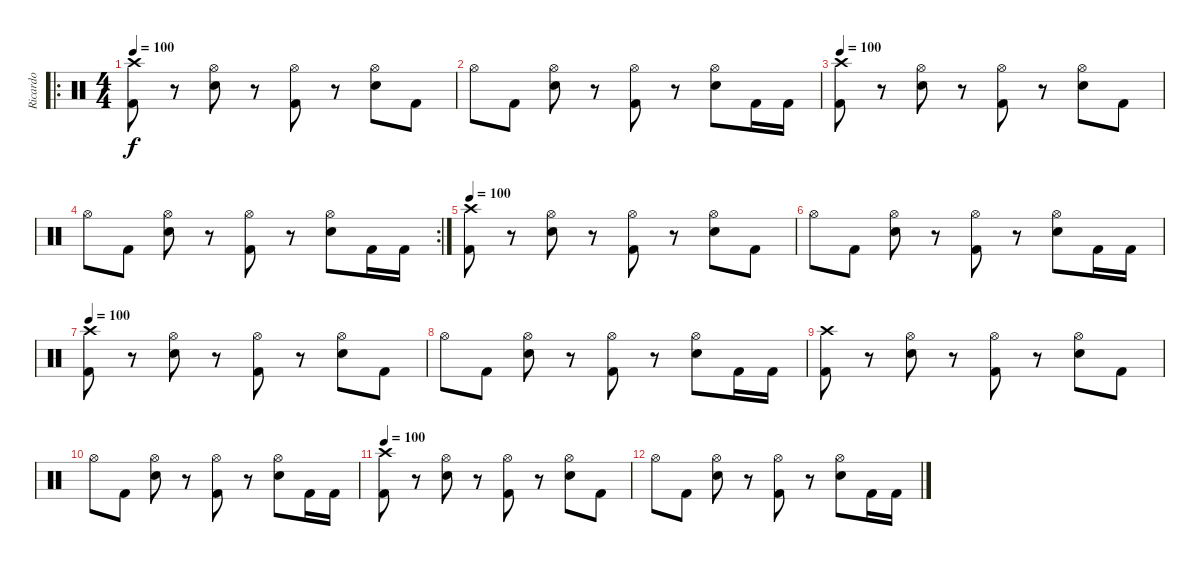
\track ("Ricardo" "Ricardo") {instrument percussion}
\staff {score}
\articulation defaults
\ro
\ts (4 4)
\tempo 100
\clef neutral
\ks c
("Crash high (hit)" "Kick (hit) 2").8{dy f} r.8 ("Hi-Hat (open)" "Snare (hit) 2").8 r.8 ("Hi-Hat (open)" "Kick (hit) 2").8 r.8 ("Hi-Hat (open)" "Snare (hit) 2").8 "Kick (hit) 2".8 |
"Hi-Hat (open)".8 "Kick (hit) 2".8 ("Hi-Hat (open)" "Snare (hit) 2").8 r.8 ("Hi-Hat (open)" "Kick (hit) 2").8 r.8 ("Hi-Hat (open)" "Snare (hit) 2").8 "Kick (hit) 2".16 "Kick (hit) 2".16 |
\tempo 100
("Crash high (hit)" "Kick (hit) 2").8 r.8 ("Hi-Hat (open)" "Snare (hit) 2").8 r.8 ("Hi-Hat (open)" "Kick (hit) 2").8 r.8 ("Hi-Hat (open)" "Snare (hit) 2").8 "Kick (hit) 2".8 |
\rc 2 "Hi-Hat (open)".8 "Kick (hit) 2".8
("Hi-Hat (open)" "Snare (hit) 2").8 r.8 ("Hi-Hat (open)" "Kick (hit) 2").8 r.8 ("Hi-Hat (open)" "Snare (hit) 2").8 "Kick (hit) 2".16 "Kick (hit) 2".16 |
\tempo 100
("Crash high (hit)" "Kick (hit) 2").8 r.8 ("Hi-Hat (open)" "Snare (hit) 2").8 r.8 ("Hi-Hat (open)" "Kick (hit) 2").8 r.8 ("Hi-Hat (open)" "Snare (hit) 2").8 "Kick (hit) 2".8 |
"Hi-Hat (open)".8 "Kick (hit) 2".8 ("Hi-Hat (open)" "Snare (hit) 2").8 r.8 ("Hi-Hat (open)" "Kick (hit) 2").8 r.8 ("Hi-Hat (open)" "Snare (hit) 2").8 "Kick (hit) 2".16 "Kick (hit) 2".16 |
\tempo 100
("Crash high (hit)" "Kick (hit) 2").8 r.8 ("Hi-Hat (open)" "Snare (hit) 2").8 r.8 ("Hi-Hat (open)" "Kick (hit) 2").8 r.8 ("Hi-Hat (open)" "Snare (hit) 2").8 "Kick (hit) 2".8 |
"Hi-Hat (open)".8 "Kick (hit) 2".8 ("Hi-Hat (open)" "Snare (hit) 2").8 r.8 ("Hi-Hat (open)" "Kick (hit) 2").8 r.8 ("Hi-Hat (open)" "Snare (hit) 2").8 "Kick (hit) 2".16 "Kick (hit) 2".16 |
("Crash high (hit)" "Kick (hit) 2").8 r.8 ("Hi-Hat (open)" "Snare (hit) 2").8 r.8 ("Hi-Hat (open)" "Kick (hit) 2").8 r.8 ("Hi-Hat (open)" "Snare (hit) 2").8 "Kick (hit) 2".8 |
"Hi-Hat (open)".8 "Kick (hit) 2".8 ("Hi-Hat (open)" "Snare (hit) 2").8 r.8 ("Hi-Hat (open)" "Kick (hit) 2").8 r.8 ("Hi-Hat (open)" "Snare (hit) 2").8 "Kick (hit) 2".16 "Kick (hit) 2".16 |
\tempo 100
("Crash high (hit)" "Kick (hit) 2").8 r.8 ("Hi-Hat (open)" "Snare (hit) 2").8 r.8 ("Hi-Hat (open)" "Kick (hit) 2").8 r.8 ("Hi-Hat (open)" "Snare (hit) 2").8 "Kick (hit) 2".8 |
"Hi-Hat (open)".8 "Kick (hit) 2".8 ("Hi-Hat (open)" "Snare (hit) 2").8 r.8 ("Hi-Hat (open)" "Kick (hit) 2").8 r.8 ("Hi-Hat (open)" "Snare (hit) 2").8 "Kick (hit) 2".16 "Kick (hit) 2".16
